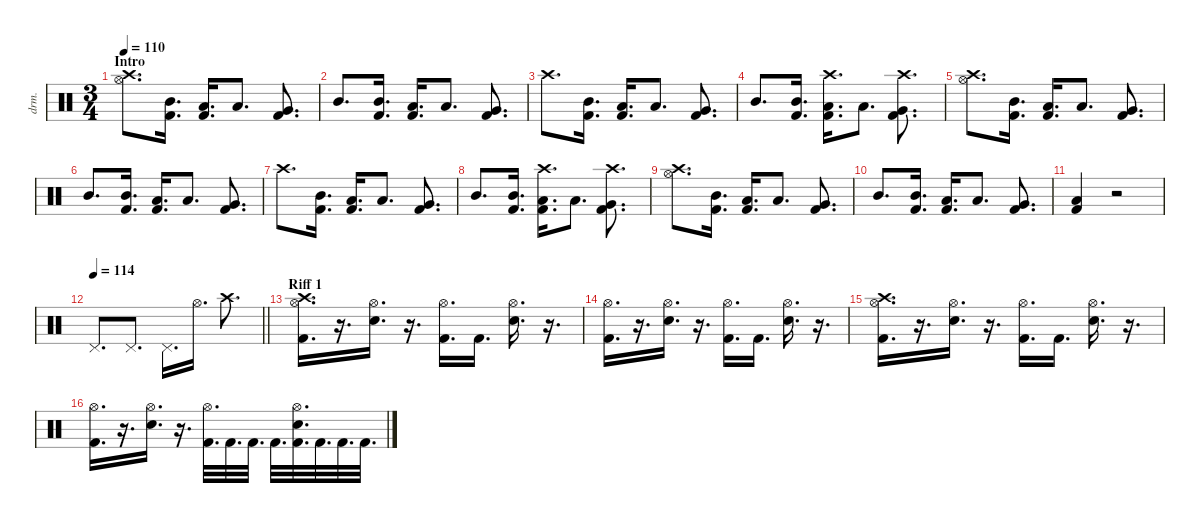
\defaultSystemsLayout 4
\hideDynamics
\bracketExtendMode nobrackets
\otherSystemsTrackNameOrientation horizontal
\track ("Drums" "drm.") {instrument percussion}
\staff {score}
\articulation defaults
\ts (3 4)
\beaming (8 2 2 2)
\section ("" "Intro")
\tempo 110
\clef neutral
\ks c
("Crash high (hit)" "Hi-Hat (open)").8{d dy f} ("Mid Tom (hit)" "Kick (hit) 2").16{d} ("Low Tom (hit)" "Kick (hit) 2").16{d} "Low Tom (hit)".8{d} ("Very Low Tom (hit)" "Kick (hit) 2").8{d} |
"Mid Tom (hit)".8{d} ("Mid Tom (hit)" "Kick (hit) 2").16{d} ("Low Tom (hit)" "Kick (hit) 2").16{d} "Low Tom (hit)".8{d} ("Very Low Tom (hit)" "Kick (hit) 2").8{d} |
"Crash high (hit)".8{d} ("Mid Tom (hit)" "Kick (hit) 2").16{d} ("Low Tom (hit)" "Kick (hit) 2").16{d} "Low Tom (hit)".8{d} ("Very Low Tom (hit)" "Kick (hit) 2").8{d} |
"Mid Tom (hit)".8{d} ("Mid Tom (hit)" "Kick (hit) 2").16{d} ("Low Tom (hit)" "Kick (hit) 2" "Crash high (hit)").16{d} "Low Tom (hit)".8{d} ("Very Low Tom (hit)" "Kick (hit) 2" "Crash high (hit)").8{d} |
("Crash high (hit)" "Hi-Hat (open)").8{d} ("Mid Tom (hit)" "Kick (hit) 2").16{d} ("Low Tom (hit)" "Kick (hit) 2").16{d} "Low Tom (hit)".8{d} ("Very Low Tom (hit)" "Kick (hit) 2").8{d} |
"Mid Tom (hit)".8{d} ("Mid Tom (hit)" "Kick (hit) 2").16{d} ("Low Tom (hit)" "Kick (hit) 2").16{d} "Low Tom (hit)".8{d} ("Very Low Tom (hit)" "Kick (hit) 2").8{d} |
"Crash high (hit)".8{d} ("Mid Tom (hit)" "Kick (hit) 2").16{d} ("Low Tom (hit)" "Kick (hit) 2").16{d} "Low Tom (hit)".8{d} ("Very Low Tom (hit)" "Kick (hit) 2").8{d} |
"Mid Tom (hit)".8{d} ("Mid Tom (hit)" "Kick (hit) 2").16{d} ("Low Tom (hit)" "Kick (hit) 2" "Crash high (hit)").16{d} "Low Tom (hit)".8{d} ("Very Low Tom (hit)" "Kick (hit) 2" "Crash high (hit)").8{d} |
("Crash high (hit)" "Hi-Hat (open)").8{d} ("Mid Tom (hit)" "Kick (hit) 2").16{d} ("Low Tom (hit)" "Kick (hit) 2").16{d} "Low Tom (hit)".8{d} ("Very Low Tom (hit)" "Kick (hit) 2").8{d} |
"Mid Tom (hit)".8{d} ("Mid Tom (hit)" "Kick (hit) 2").16{d} ("Low Tom (hit)" "Kick (hit) 2").16{d} "Low Tom (hit)".8{d} ("Very Low Tom (hit)" "Kick (hit) 2").8{d} |
("Low Tom (hit)" "Kick (hit) 2").4 r.2 |
\tempo 114
\barLineRight lightlight "Pedal Hi-Hat (hit)".8{d} "Pedal Hi-Hat (hit)".8{d} "Pedal Hi-Hat (hit)".16{d} "Hi-Hat (open)".16{d} "Crash high (hit)".8{d}
|
\section ("" "Riff 1")
("Hi-Hat (open)" "Crash high (hit)" "Kick (hit) 2").16{d} r.16{d} ("Hi-Hat (open)" "Snare (hit) 2").16{d} r.16{d} ("Hi-Hat (open)" "Kick (hit) 2").16{d} "Kick (hit) 2".16{d} ("Hi-Hat (open)" "Snare (hit) 2").16{d} r.16{d} |
("Hi-Hat (open)" "Kick (hit) 2").16{d} r.16{d} ("Hi-Hat (open)" "Snare (hit) 2").16{d} r.16{d} ("Hi-Hat (open)" "Kick (hit) 2").16{d} "Kick (hit) 2".16{d} ("Hi-Hat (open)" "Snare (hit) 2").16{d} r.16{d} |
("Hi-Hat (open)" "Crash high (hit)" "Kick (hit) 2").16{d} r.16{d} ("Hi-Hat (open)" "Snare (hit) 2").16{d} r.16{d} ("Hi-Hat (open)" "Kick (hit) 2").16{d} "Kick (hit) 2".16{d} ("Hi-Hat (open)" "Snare (hit) 2").16{d} r.16{d} |
("Hi-Hat (open)" "Kick (hit) 2").16{d} r.16{d} ("Hi-Hat (open)" "Snare (hit) 2").16{d} r.16{d} ("Hi-Hat (open)" "Kick (hit) 2").32{d} "Kick (hit) 2".32{d} "Kick (hit) 2".32{d} "Kick (hit) 2".32{d} ("Hi-Hat (open)" "Snare (hit) 2" "Kick (hit) 2").32{d} "Kick (hit) 2".32{d} "Kick (hit) 2".32{d} "Kick (hit) 2".32{d}
